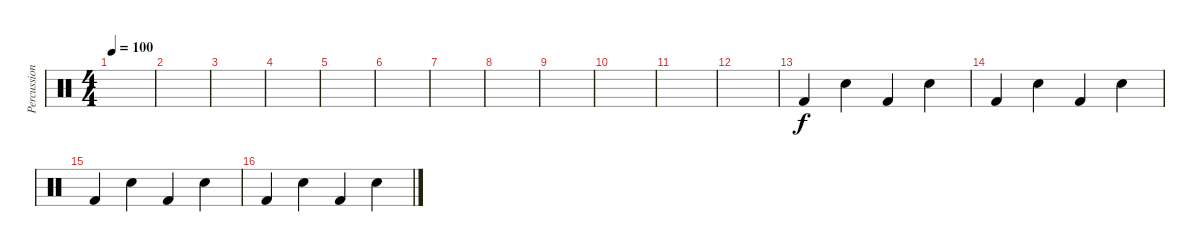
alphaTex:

\track ("Percussions" "Percussion") {instrument percussion}
\staff {score}
\articulation defaults
\ts (4 4)
\tempo 100
\clef neutral
\ks c
|
|
|
|
|
|
|
|
|
|
|
|
"Kick (hit) 2".4 "Snare (hit) 2".4 "Kick (hit) 2".4 "Snare (hit) 2".4 |
"Kick (hit) 2".4 "Snare (hit) 2".4 "Kick (hit) 2".4 "Snare (hit) 2".4 |
"Kick (hit) 2".4 "Snare (hit) 2".4 "Kick (hit) 2".4 "Snare (hit) 2".4 |
"Kick (hit) 2".4 "Snare (hit) 2".4 "Kick (hit) 2".4 "Snare (hit) 2".4
